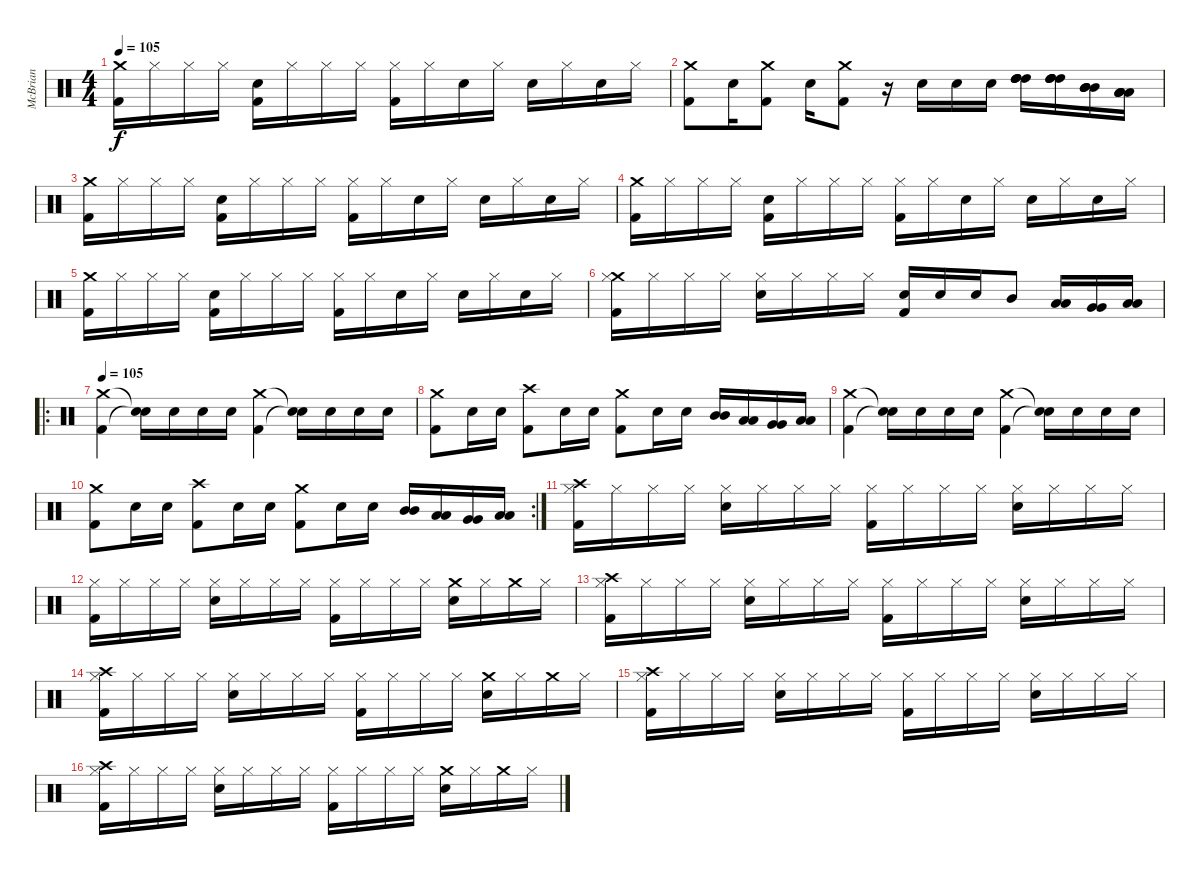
\track ("McBrian" "McBrian") {instrument percussion}
\staff {score}
\articulation defaults
\ts (4 4)
\tempo 105
\clef neutral
\ks c
("Crash medium (hit)" "Kick (hit) 2").16{dy f} "Hi-Hat (closed)".16 "Hi-Hat (closed)".16 "Hi-Hat (closed)".16 ("Snare (hit) 2" "Kick (hit) 2").16 "Hi-Hat (closed)".16 "Hi-Hat (closed)".16 "Hi-Hat (closed)".16 ("Hi-Hat (closed)" "Kick (hit) 2").16 "Hi-Hat (closed)".16 "Snare (hit)".16 "Hi-Hat (closed)".16 "Snare (hit) 2".16 "Hi-Hat (closed)".16 "Snare (hit) 2".16 "Hi-Hat (closed)".16 |
("Kick (hit) 2" "Crash medium (hit)").8 "Snare (hit) 2".16 ("Kick (hit) 2" "Crash medium (hit)").8 "Snare (hit) 2".16 ("Kick (hit) 2" "Crash medium (hit)").8 r.16 "Snare (hit) 2".16 "Snare (hit) 2".16 "Snare (hit) 2".16 ("High Tom (hit)" "High Tom (hit)" "High Tom (hit)" "High Tom (hit)").16 ("High Tom (hit)" "High Tom (hit)" "High Tom (hit)" "High Tom (hit)").16 ("Mid Tom (hit)" "Mid Tom (hit)" "Mid Tom (hit)" "Mid Tom (hit)").16 ("Low Tom (hit)" "Low Tom (hit)" "Low Tom (hit)" "Low Tom (hit)").16 |
("Crash medium (hit)" "Kick (hit) 2").16 "Hi-Hat (closed)".16 "Hi-Hat (closed)".16 "Hi-Hat (closed)".16 ("Snare (hit) 2" "Kick (hit) 2").16 "Hi-Hat (closed)".16 "Hi-Hat (closed)".16 "Hi-Hat (closed)".16 ("Hi-Hat (closed)" "Kick (hit) 2").16 "Hi-Hat (closed)".16 "Snare (hit)".16 "Hi-Hat (closed)".16 "Snare (hit) 2".16 "Hi-Hat (closed)".16 "Snare (hit) 2".16 "Hi-Hat (closed)".16 |
("Crash medium (hit)" "Kick (hit) 2").16 "Hi-Hat (closed)".16 "Hi-Hat (closed)".16 "Hi-Hat (closed)".16 ("Snare (hit) 2" "Kick (hit) 2").16 "Hi-Hat (closed)".16 "Hi-Hat (closed)".16 "Hi-Hat (closed)".16 ("Hi-Hat (closed)" "Kick (hit) 2").16 "Hi-Hat (closed)".16 "Snare (hit)".16 "Hi-Hat (closed)".16 "Snare (hit) 2".16 "Hi-Hat (closed)".16 "Snare (hit) 2".16 "Hi-Hat (closed)".16 |
("Crash medium (hit)" "Kick (hit) 2").16 "Hi-Hat (closed)".16 "Hi-Hat (closed)".16 "Hi-Hat (closed)".16 ("Snare (hit) 2" "Kick (hit) 2").16 "Hi-Hat (closed)".16 "Hi-Hat (closed)".16 "Hi-Hat (closed)".16 ("Hi-Hat (closed)" "Kick (hit) 2").16 "Hi-Hat (closed)".16 "Snare (hit)".16 "Hi-Hat (closed)".16 "Snare (hit) 2".16 "Hi-Hat (closed)".16 "Snare (hit) 2".16 "Hi-Hat (closed)".16 |
("Crash medium (hit)" "Hi-Hat (closed)" "Kick (hit) 2").16 "Hi-Hat (closed)".16 "Hi-Hat (closed)".16 "Hi-Hat (closed)".16 ("Snare (hit) 2" "Hi-Hat (closed)").16 "Hi-Hat (closed)".16 "Hi-Hat (closed)".16 "Hi-Hat (closed)".16 ("Snare (hit) 2" "Kick (hit) 2").16 "Snare (hit) 2".16 "Snare (hit) 2".16 "Mid Tom (hit)".8 ("Low Tom (hit)" "Low Tom (hit)").16 ("Very Low Tom (hit)" "Very Low Tom (hit)").16 ("Low Floor Tom (hit)" "Low Floor Tom (hit)").16 |
\ro
\tempo 105
("Crash medium (hit)" "Kick (hit) 2").4 ("Snare (hit)"{t} "Snare (hit) 2"{t}).16 "Snare (hit) 2".16 "Snare (hit) 2".16 "Snare (hit) 2".16 ("Crash medium (hit)" "Kick (hit) 2").4 ("Snare (hit)"{t} "Snare (hit)"{t}).16 "Snare (hit) 2".16 "Snare (hit) 2".16 "Snare (hit) 2".16 |
("Kick (hit) 2" "Crash medium (hit)").8 "Snare (hit) 2".16 "Snare (hit) 2".16 ("Kick (hit) 2" "Crash high (hit)").8 "Snare (hit) 2".16 "Snare (hit) 2".16 ("Kick (hit) 2" "Crash medium (hit)").8 "Snare (hit) 2".16 "Snare (hit) 2".16 ("Mid Tom (hit)" "Mid Tom (hit)").16 ("Low Tom (hit)" "Low Tom (hit)").16 ("Very Low Tom (hit)" "Very Low Tom (hit)").16 ("Low Floor Tom (hit)" "Low Floor Tom (hit)").16 |
("Crash medium (hit)" "Kick (hit) 2").4 ("Snare (hit)"{t} "Snare (hit) 2"{t}).16 "Snare (hit) 2".16 "Snare (hit) 2".16 "Snare (hit) 2".16 ("Crash medium (hit)" "Kick (hit) 2").4 ("Snare (hit)"{t} "Snare (hit)"{t}).16 "Snare (hit) 2".16 "Snare (hit) 2".16 "Snare (hit) 2".16 |
\rc 2
("Kick (hit) 2" "Crash medium (hit)").8 "Snare (hit) 2".16 "Snare (hit) 2".16 ("Kick (hit) 2" "Crash high (hit)").8 "Snare (hit) 2".16 "Snare (hit) 2".16 ("Kick (hit) 2" "Crash medium (hit)").8 "Snare (hit) 2".16 "Snare (hit) 2".16 ("Mid Tom (hit)" "Mid Tom (hit)").16 ("Low Tom (hit)" "Low Tom (hit)").16 ("Very Low Tom (hit)" "Very Low Tom (hit)").16 ("Low Floor Tom (hit)" "Low Floor Tom (hit)").16 |
("Crash high (hit)" "Hi-Hat (closed)" "Kick (hit) 2").16 "Hi-Hat (closed)".16 "Hi-Hat (closed)".16 "Hi-Hat (closed)".16 ("Hi-Hat (closed)" "Snare (hit) 2").16 "Hi-Hat (closed)".16 "Hi-Hat (closed)".16 "Hi-Hat (closed)".16 ("Hi-Hat (closed)" "Kick (hit) 2").16 "Hi-Hat (closed)".16 "Hi-Hat (closed)".16 "Hi-Hat (closed)".16 ("Hi-Hat (closed)" "Snare (hit) 2").16 "Hi-Hat (closed)".16 "Hi-Hat (closed)".16 "Hi-Hat (closed)".16 |
("Hi-Hat (closed)" "Kick (hit) 2").16 "Hi-Hat (closed)".16 "Hi-Hat (closed)".16 "Hi-Hat (closed)".16 ("Hi-Hat (closed)" "Snare (hit) 2").16 "Hi-Hat (closed)".16 "Hi-Hat (closed)".16 "Hi-Hat (closed)".16 ("Hi-Hat (closed)" "Kick (hit) 2").16 "Hi-Hat (closed)".16 "Hi-Hat (closed)".16 "Hi-Hat (closed)".16 ("Crash medium (hit)" "Snare (hit) 2").16 "Hi-Hat (closed)".16 "Crash medium (hit)".16 "Hi-Hat (closed)".16 |
("Crash high (hit)" "Hi-Hat (closed)" "Kick (hit) 2").16 "Hi-Hat (closed)".16 "Hi-Hat (closed)".16 "Hi-Hat (closed)".16 ("Hi-Hat (closed)" "Snare (hit) 2").16 "Hi-Hat (closed)".16 "Hi-Hat (closed)".16 "Hi-Hat (closed)".16 ("Hi-Hat (closed)" "Kick (hit) 2").16 "Hi-Hat (closed)".16 "Hi-Hat (closed)".16 "Hi-Hat (closed)".16 ("Hi-Hat (closed)" "Snare (hit) 2").16 "Hi-Hat (closed)".16 "Hi-Hat (closed)".16 "Hi-Hat (closed)".16 |
("Crash high (hit)" "Hi-Hat (closed)" "Kick (hit) 2").16 "Hi-Hat (closed)".16 "Hi-Hat (closed)".16 "Hi-Hat (closed)".16 ("Hi-Hat (closed)" "Snare (hit) 2").16 "Hi-Hat (closed)".16 "Hi-Hat (closed)".16 "Hi-Hat (closed)".16 ("Hi-Hat (closed)" "Kick (hit) 2").16 "Hi-Hat (closed)".16 "Hi-Hat (closed)".16 "Hi-Hat (closed)".16 ("Crash medium (hit)" "Snare (hit) 2").16 "Hi-Hat (closed)".16 "Crash medium (hit)".16 "Hi-Hat (closed)".16 |
("Crash high (hit)" "Hi-Hat (closed)" "Kick (hit) 2").16 "Hi-Hat (closed)".16 "Hi-Hat (closed)".16 "Hi-Hat (closed)".16 ("Hi-Hat (closed)" "Snare (hit) 2").16 "Hi-Hat (closed)".16 "Hi-Hat (closed)".16 "Hi-Hat (closed)".16 ("Hi-Hat (closed)" "Kick (hit) 2").16 "Hi-Hat (closed)".16 "Hi-Hat (closed)".16 "Hi-Hat (closed)".16 ("Hi-Hat (closed)" "Snare (hit) 2").16 "Hi-Hat (closed)".16 "Hi-Hat (closed)".16 "Hi-Hat (closed)".16 |
("Crash high (hit)" "Hi-Hat (closed)" "Kick (hit) 2").16 "Hi-Hat (closed)".16 "Hi-Hat (closed)".16 "Hi-Hat (closed)".16 ("Hi-Hat (closed)" "Snare (hit) 2").16 "Hi-Hat (closed)".16 "Hi-Hat (closed)".16 "Hi-Hat (closed)".16 ("Hi-Hat (closed)" "Kick (hit) 2").16 "Hi-Hat (closed)".16 "Hi-Hat (closed)".16 "Hi-Hat (closed)".16 ("Crash medium (hit)" "Snare (hit) 2").16 "Hi-Hat (closed)".16 "Crash medium (hit)".16 "Hi-Hat (closed)".16
